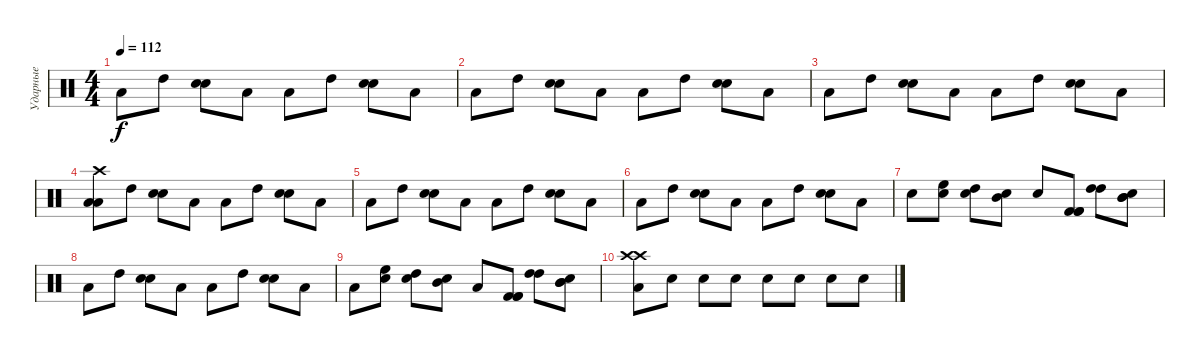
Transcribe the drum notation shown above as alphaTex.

\track ("Ударные" "Ударные") {instrument percussion}
\staff {score}
\articulation defaults
\ts (4 4)
\tempo 112
\clef neutral
\ks c "Low Tom (hit)".8{dy f} "High Tom (hit)".8
("Snare (hit) 2" "Snare (hit) 2").8 "Low Tom (hit)".8 "Low Tom (hit)".8 "High Tom (hit)".8 ("Snare (hit) 2" "Snare (hit) 2").8 "Low Tom (hit)".8 |
"Low Tom (hit)".8 "High Tom (hit)".8 ("Snare (hit) 2" "Snare (hit) 2").8 "Low Tom (hit)".8 "Low Tom (hit)".8 "High Tom (hit)".8 ("Snare (hit) 2" "Snare (hit) 2").8 "Low Tom (hit)".8 |
"Low Tom (hit)".8 "High Tom (hit)".8 ("Snare (hit) 2" "Snare (hit) 2").8 "Low Tom (hit)".8 "Low Tom (hit)".8 "High Tom (hit)".8 ("Snare (hit) 2" "Snare (hit) 2").8 "Low Tom (hit)".8 |
("Crash high (hit)" "Low Tom (hit)" "Low Tom (hit)").8 "High Tom (hit)".8 ("Snare (hit) 2" "Snare (hit) 2").8 "Low Tom (hit)".8 "Low Tom (hit)".8 "High Tom (hit)".8 ("Snare (hit) 2" "Snare (hit) 2").8 "Low Tom (hit)".8 |
"Low Tom (hit)".8 "High Tom (hit)".8 ("Snare (hit) 2" "Snare (hit) 2").8 "Low Tom (hit)".8 "Low Tom (hit)".8 "High Tom (hit)".8 ("Snare (hit) 2" "Snare (hit) 2").8 "Low Tom (hit)".8 |
"Low Tom (hit)".8 "High Tom (hit)".8 ("Snare (hit) 2" "Snare (hit) 2").8 "Low Tom (hit)".8 "Low Tom (hit)".8 "High Tom (hit)".8 ("Snare (hit) 2" "Snare (hit) 2").8 "Low Tom (hit)".8 |
"Snare (hit)".8 ("Snare (hit)" "High Floor Tom (hit)").8 ("Snare (hit)" "High Tom (hit)").8 ("Mid Tom (hit)" "Snare (hit)").8 "Snare (hit)".8 ("Kick (hit) 2" "Kick (hit) 2" "Kick (hit) 2").8 ("High Tom (hit)" "High Tom (hit)").8 ("Mid Tom (hit)" "Mid Tom (hit)" "Snare (hit)").8 |
"Low Tom (hit)".8 "High Tom (hit)".8 ("Snare (hit) 2" "Snare (hit) 2").8 "Low Tom (hit)".8 "Low Tom (hit)".8 "High Tom (hit)".8 ("Snare (hit) 2" "Snare (hit) 2").8 "Low Tom (hit)".8 |
"Low Tom (hit)".8 ("Snare (hit)" "High Floor Tom (hit)").8 ("Snare (hit)" "High Tom (hit)").8 ("Mid Tom (hit)" "Snare (hit)").8 "Low Tom (hit)".8 ("Kick (hit) 2" "Kick (hit) 2" "Kick (hit) 2").8 ("High Tom (hit)" "High Tom (hit)").8 ("Mid Tom (hit)" "Mid Tom (hit)" "Snare (hit)").8 |
("Low Tom (hit)" "Crash high (hit)" "Crash high (hit)").8 "Snare (hit)".8 "Snare (hit)".8 "Snare (hit)".8 "Snare (hit)".8 "Snare (hit)".8 "Snare (hit)".8 "Snare (hit)".8
